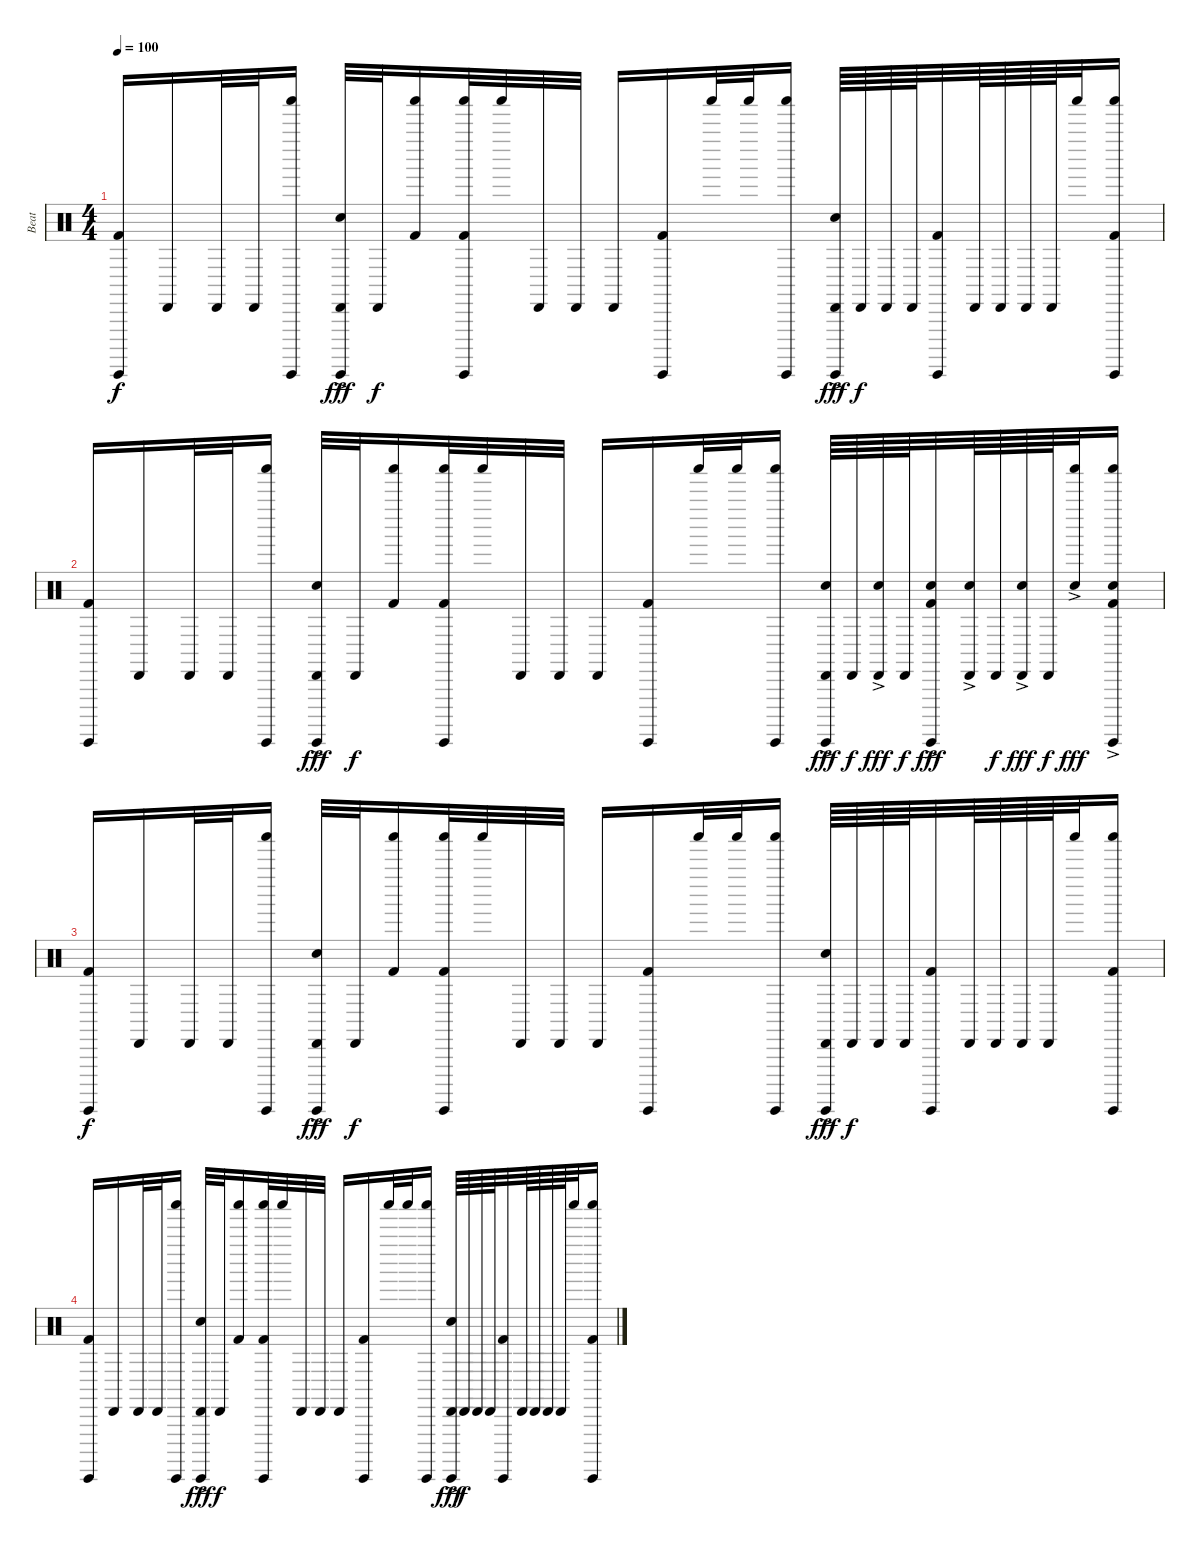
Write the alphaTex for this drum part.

\track ("Beat" "Beat") {instrument percussion}
\staff {score}
\articulation defaults
\ts (4 4)
\tempo 100
\clef neutral
\ks c
("Guiro (hit)" "Kick (hit) 2").16{dy f} "Cabasa (hit)".16 "Cabasa (hit)".32 "Cabasa (hit)".32 ("Guiro (hit)" "Shaker (hit)").16 ("Guiro (hit)" "Cabasa (hit)" "Snare (hit) 2"{ac}).32{dy fff} "Cabasa (hit)".32{dy f} ("Shaker (hit)" "Kick (hit) 2").16 ("Guiro (hit)" "Shaker (hit)" "Kick (hit) 2").32 "Shaker (hit)".32 "Cabasa (hit)".32 "Cabasa (hit)".32 "Cabasa (hit)".16 ("Guiro (hit)" "Kick (hit) 2").16 "Shaker (hit)".32 "Shaker (hit)".32 ("Guiro (hit)" "Shaker (hit)").16 ("Guiro (hit)" "Cabasa (hit)" "Snare (hit) 2"{ac}).64{dy fff} "Cabasa (hit)".64{dy f} "Cabasa (hit)".64 "Cabasa (hit)".64 ("Guiro (hit)" "Kick (hit) 2").32 "Cabasa (hit)".64 "Cabasa (hit)".64 "Cabasa (hit)".64 "Cabasa (hit)".64 "Shaker (hit)".32 ("Guiro (hit)" "Shaker (hit)" "Kick (hit) 2").16 |
("Guiro (hit)" "Kick (hit) 2").16 "Cabasa (hit)".16 "Cabasa (hit)".32 "Cabasa (hit)".32 ("Guiro (hit)" "Shaker (hit)").16 ("Guiro (hit)" "Cabasa (hit)" "Snare (hit) 2"{ac}).32{dy fff} "Cabasa (hit)".32{dy f} ("Shaker (hit)" "Kick (hit) 2").16 ("Guiro (hit)" "Shaker (hit)" "Kick (hit) 2").32 "Shaker (hit)".32 "Cabasa (hit)".32 "Cabasa (hit)".32 "Cabasa (hit)".16 ("Guiro (hit)" "Kick (hit) 2").16 "Shaker (hit)".32 "Shaker (hit)".32 ("Guiro (hit)" "Shaker (hit)").16 ("Guiro (hit)" "Cabasa (hit)" "Snare (hit) 2"{ac}).64{dy fff} "Cabasa (hit)".64{dy f} ("Cabasa (hit)" "Snare (hit) 2"{ac}).64{dy fff} "Cabasa (hit)".64{dy f} ("Guiro (hit)" "Snare (hit) 2"{ac} "Kick (hit) 2").32{dy fff} ("Cabasa (hit)" "Snare (hit) 2"{ac}).64 "Cabasa (hit)".64{dy f} ("Cabasa (hit)" "Snare (hit) 2"{ac}).64{dy fff} "Cabasa (hit)".64{dy f} ("Shaker (hit)" "Snare (hit) 2"{ac}).32{dy fff} ("Guiro (hit)" "Shaker (hit)" "Snare (hit) 2"{ac} "Kick (hit) 2").16 |
("Guiro (hit)" "Kick (hit) 2").16{dy f} "Cabasa (hit)".16 "Cabasa (hit)".32 "Cabasa (hit)".32 ("Guiro (hit)" "Shaker (hit)").16 ("Guiro (hit)" "Cabasa (hit)" "Snare (hit) 2"{ac}).32{dy fff} "Cabasa (hit)".32{dy f} ("Shaker (hit)" "Kick (hit) 2").16 ("Guiro (hit)" "Shaker (hit)" "Kick (hit) 2").32 "Shaker (hit)".32 "Cabasa (hit)".32 "Cabasa (hit)".32 "Cabasa (hit)".16 ("Guiro (hit)" "Kick (hit) 2").16 "Shaker (hit)".32 "Shaker (hit)".32 ("Guiro (hit)" "Shaker (hit)").16 ("Guiro (hit)" "Cabasa (hit)" "Snare (hit) 2"{ac}).64{dy fff} "Cabasa (hit)".64{dy f} "Cabasa (hit)".64 "Cabasa (hit)".64 ("Guiro (hit)" "Kick (hit) 2").32 "Cabasa (hit)".64 "Cabasa (hit)".64 "Cabasa (hit)".64 "Cabasa (hit)".64 "Shaker (hit)".32 ("Guiro (hit)" "Shaker (hit)" "Kick (hit) 2").16 |
("Guiro (hit)" "Kick (hit) 2").16 "Cabasa (hit)".16 "Cabasa (hit)".32 "Cabasa (hit)".32 ("Guiro (hit)" "Shaker (hit)").16 ("Guiro (hit)" "Cabasa (hit)" "Snare (hit) 2"{ac}).32{dy fff} "Cabasa (hit)".32{dy f} ("Shaker (hit)" "Kick (hit) 2").16 ("Guiro (hit)" "Shaker (hit)" "Kick (hit) 2").32 "Shaker (hit)".32 "Cabasa (hit)".32 "Cabasa (hit)".32 "Cabasa (hit)".16 ("Guiro (hit)" "Kick (hit) 2").16 "Shaker (hit)".32 "Shaker (hit)".32 ("Guiro (hit)" "Shaker (hit)").16 ("Guiro (hit)" "Cabasa (hit)" "Snare (hit) 2"{ac}).64{dy fff} "Cabasa (hit)".64{dy f} "Cabasa (hit)".64 "Cabasa (hit)".64 ("Guiro (hit)" "Kick (hit) 2").32 "Cabasa (hit)".64 "Cabasa (hit)".64 "Cabasa (hit)".64 "Cabasa (hit)".64 "Shaker (hit)".32 ("Guiro (hit)" "Shaker (hit)" "Kick (hit) 2").16
